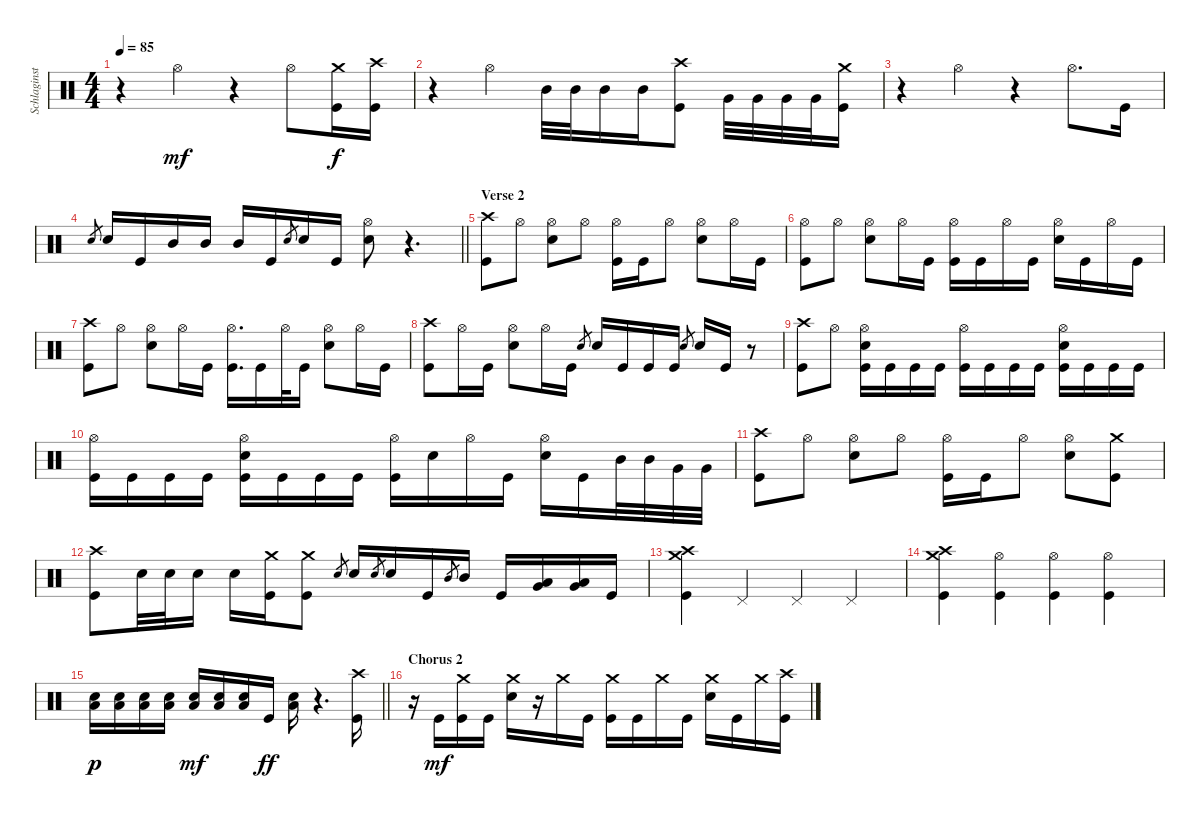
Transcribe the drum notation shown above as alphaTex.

\track ("Schlaginstrumente - Auswahl" "Schlaginst") {instrument percussion}
\staff {score}
\articulation defaults
\ts (4 4)
\tempo 85
\clef neutral
\ks c
r.4{dy mf} "Hi-Hat (open)".4 r.4 "Hi-Hat (open)".8 ("Crash medium (hit)" "Kick (hit)").16{dy f} ("Crash high (hit)" "Kick (hit)").16 |
r.4 "Hi-Hat (open)".4 "Mid Tom (hit)".32 "Mid Tom (hit)".32 "Mid Tom (hit)".16 "Mid Tom (hit)".16 ("Crash high (hit)" "Kick (hit)").8 "Very Low Tom (hit)".32 "Very Low Tom (hit)".32 "Very Low Tom (hit)".32 "Very Low Tom (hit)".32 ("Crash medium (hit)" "Kick (hit)").16 |
r.4 "Hi-Hat (open)".4 r.4 "Hi-Hat (open)".8{d} "Kick (hit)".16 |
\barLineRight lightlight "Snare (hit) 2".8{gr} "Snare (hit) 2".16 "Kick (hit)".16 "Mid Tom (hit)".16 "Mid Tom (hit)".16 "Mid Tom (hit)".16 "Kick (hit)".16 "Snare (hit) 2".8{gr} "Snare (hit) 2".16 "Kick (hit)".16
("Snare (hit) 2" "Hi-Hat (open)").8 r.4{d volume 1} |
\section ("" "Verse 2")
("Crash high (hit)" "Kick (hit)").8{volume 13} "Hi-Hat (open)".8 ("Hi-Hat (open)" "Snare (hit) 2").8 "Hi-Hat (open)".8 ("Hi-Hat (open)" "Kick (hit)").16 "Kick (hit)".16 "Hi-Hat (open)".8 ("Hi-Hat (open)" "Snare (hit) 2").8 "Hi-Hat (open)".16 "Kick (hit)".16 |
("Hi-Hat (open)" "Kick (hit)").8 "Hi-Hat (open)".8 ("Hi-Hat (open)" "Snare (hit) 2").8 "Hi-Hat (open)".16 "Kick (hit)".16 ("Hi-Hat (open)" "Kick (hit)").16 "Kick (hit)".16 "Hi-Hat (open)".16 "Kick (hit)".16 ("Hi-Hat (open)" "Snare (hit) 2").16 "Kick (hit)".16 "Hi-Hat (open)".16 "Kick (hit)".16 |
("Crash high (hit)" "Kick (hit)").8 "Hi-Hat (open)".8 ("Hi-Hat (open)" "Snare (hit) 2").8 "Hi-Hat (open)".16 "Kick (hit)".16 ("Hi-Hat (open)" "Kick (hit)").16{d} "Kick (hit)".16 "Hi-Hat (open)".32 "Kick (hit)".16 ("Hi-Hat (open)" "Snare (hit) 2").8 "Hi-Hat (open)".16 "Kick (hit)".16 |
("Crash high (hit)" "Kick (hit)").8 "Hi-Hat (open)".16 "Kick (hit)".16 ("Hi-Hat (open)" "Snare (hit) 2").8 "Hi-Hat (open)".16 "Kick (hit)".16 "Snare (hit) 2".8{gr} "Snare (hit) 2".16 "Kick (hit)".16 "Kick (hit)".16 "Kick (hit)".16 "Snare (hit) 2".8{gr} "Snare (hit) 2".16 "Kick (hit)".16 r.8{volume 1} |
("Crash high (hit)" "Kick (hit)").8{volume 13} "Hi-Hat (open)".8 ("Hi-Hat (open)" "Snare (hit) 2" "Kick (hit)").16 "Kick (hit)".16 "Kick (hit)".16 "Kick (hit)".16 ("Hi-Hat (open)" "Kick (hit)").16 "Kick (hit)".16 "Kick (hit)".16 "Kick (hit)".16 ("Hi-Hat (open)" "Snare (hit) 2" "Kick (hit)").16 "Kick (hit)".16 "Kick (hit)".16 "Kick (hit)".16 |
("Hi-Hat (open)" "Kick (hit)").16 "Kick (hit)".16 "Kick (hit)".16 "Kick (hit)".16 ("Hi-Hat (open)" "Snare (hit) 2" "Kick (hit)").16 "Kick (hit)".16 "Kick (hit)".16 "Kick (hit)".16 ("Hi-Hat (open)" "Kick (hit)").16 "Snare (hit) 2".16 "Hi-Hat (open)".16 "Kick (hit)".16 ("Hi-Hat (open)" "Snare (hit) 2").16 "Kick (hit)".16 "Mid Tom (hit)".32 "Mid Tom (hit)".32 "Very Low Tom (hit)".32 "Very Low Tom (hit)".32 |
("Crash high (hit)" "Kick (hit)").8 "Hi-Hat (open)".8 ("Hi-Hat (open)" "Snare (hit) 2").8 "Hi-Hat (open)".8 ("Hi-Hat (open)" "Kick (hit)").16 "Kick (hit)".16 "Hi-Hat (open)".8 ("Hi-Hat (open)" "Snare (hit) 2").8 ("Crash medium (hit)" "Kick (hit)").8 |
("Crash high (hit)" "Kick (hit)").8 "Snare (hit) 2".32 "Snare (hit) 2".32 "Snare (hit) 2".16 "Snare (hit) 2".16 ("Crash medium (hit)" "Kick (hit)").16 ("Crash medium (hit)" "Kick (hit)").8 "Snare (hit) 2".8{gr} "Snare (hit) 2".16 "Snare (hit) 2".8{gr} "Snare (hit) 2".16 "Kick (hit)".16 "Mid Tom (hit)".8{gr} "Mid Tom (hit)".16 "Kick (hit)".16 ("Very Low Tom (hit)" "Low Floor Tom (hit)").16 ("Very Low Tom (hit)" "Low Floor Tom (hit)").16 "Kick (hit)".16 |
("Crash medium (hit)" "Crash high (hit)" "Kick (hit)").4 "Pedal Hi-Hat (hit)".4 "Pedal Hi-Hat (hit)".4 "Pedal Hi-Hat (hit)".4 |
("Crash medium (hit)" "Crash high (hit)" "Kick (hit)").4 ("Hi-Hat (open)" "Kick (hit)").4 ("Hi-Hat (open)" "Kick (hit)").4 ("Hi-Hat (open)" "Kick (hit)").4 |
\barLineRight lightlight
("Snare (hit) 2" "Low Floor Tom (hit)").16{dy p} ("Snare (hit) 2" "Low Floor Tom (hit)").16 ("Snare (hit) 2" "Low Floor Tom (hit)").16 ("Snare (hit) 2" "Low Floor Tom (hit)").16 ("Snare (hit) 2" "Low Floor Tom (hit)").16{dy mf} ("Snare (hit) 2" "Low Floor Tom (hit)").16 ("Snare (hit) 2" "Low Floor Tom (hit)").16 "Kick (hit)".16{dy ff} ("Snare (hit) 2" "Low Floor Tom (hit)").16 r.4{d} ("Crash high (hit)" "Kick (hit)").16 |
\section ("" "Chorus 2")
r.16 "Kick (hit)".16{dy mf} ("Crash medium (hit)" "Kick (hit)").16 "Kick (hit)".16 ("Crash medium (hit)" "Snare (hit) 2").16 r.16 "Crash medium (hit)".16 "Kick (hit)".16 ("Crash medium (hit)" "Kick (hit)").16 "Kick (hit)".16 "Crash medium (hit)".16 "Kick (hit)".16 ("Crash medium (hit)" "Snare (hit) 2").16 "Kick (hit)".16 "Crash medium (hit)".16 ("Crash high (hit)" "Kick (hit)").16
